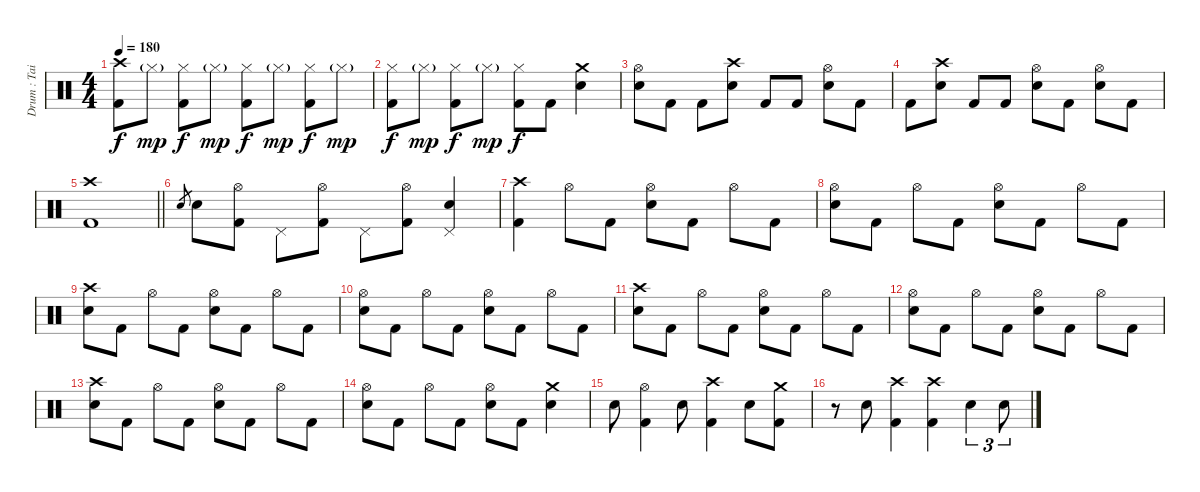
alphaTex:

\track ("Drum : Tainaka Ritsu - Chan" "Drum : Tai") {instrument percussion}
\staff {score}
\articulation defaults
\ts (4 4)
\tempo 180
\clef neutral
\ks c
("Crash high (hit)" "Kick (hit) 2").8{dy f} "Hi-Hat (closed)"{g}.8{dy mp} ("Hi-Hat (closed)" "Kick (hit) 2").8{dy f} "Hi-Hat (closed)"{g}.8{dy mp} ("Hi-Hat (closed)" "Kick (hit) 2").8{dy f} "Hi-Hat (closed)"{g}.8{dy mp} ("Hi-Hat (closed)" "Kick (hit) 2").8{dy f} "Hi-Hat (closed)"{g}.8{dy mp} |
("Hi-Hat (closed)" "Kick (hit) 2").8{dy f} "Hi-Hat (closed)"{g}.8{dy mp} ("Hi-Hat (closed)" "Kick (hit) 2").8{dy f} "Hi-Hat (closed)"{g}.8{dy mp} ("Hi-Hat (closed)" "Kick (hit) 2").8{dy f} "Kick (hit) 2".8 ("Crash medium (hit)" "Electric Snare (hit)").4 |
("Hi-Hat (open)" "Electric Snare (hit)").8 "Kick (hit) 2".8 "Kick (hit) 2".8 ("Crash high (hit)" "Electric Snare (hit)").8 "Kick (hit) 2".8 "Kick (hit) 2".8 ("Hi-Hat (open)" "Electric Snare (hit)").8 "Kick (hit) 2".8 |
"Kick (hit) 2".8 ("Crash high (hit)" "Electric Snare (hit)").8 "Kick (hit) 2".8 "Kick (hit) 2".8 ("Hi-Hat (open)" "Electric Snare (hit)").8 "Kick (hit) 2".8 ("Hi-Hat (open)" "Electric Snare (hit)").8 "Kick (hit) 2".8 |
\barLineRight lightlight
("Crash high (hit)" "Kick (hit) 2").1 |
"Electric Snare (hit)".8{gr} "Electric Snare (hit)".8 ("Hi-Hat (open)" "Kick (hit) 2").8 "Pedal Hi-Hat (hit)".8 ("Hi-Hat (open)" "Kick (hit) 2").8 "Pedal Hi-Hat (hit)".8 ("Hi-Hat (open)" "Kick (hit) 2").8 ("Pedal Hi-Hat (hit)" "Electric Snare (hit)").4 |
("Crash high (hit)" "Kick (hit) 2").4 "Hi-Hat (open)".8 "Kick (hit) 2".8 ("Hi-Hat (open)" "Electric Snare (hit)").8 "Kick (hit) 2".8 "Hi-Hat (open)".8 "Kick (hit) 2".8 |
("Hi-Hat (open)" "Electric Snare (hit)").8 "Kick (hit) 2".8 "Hi-Hat (open)".8 "Kick (hit) 2".8 ("Hi-Hat (open)" "Electric Snare (hit)").8 "Kick (hit) 2".8 "Hi-Hat (open)".8 "Kick (hit) 2".8 |
("Crash high (hit)" "Electric Snare (hit)").8 "Kick (hit) 2".8 "Hi-Hat (open)".8 "Kick (hit) 2".8 ("Hi-Hat (open)" "Electric Snare (hit)").8 "Kick (hit) 2".8 "Hi-Hat (open)".8 "Kick (hit) 2".8 |
("Hi-Hat (open)" "Electric Snare (hit)").8 "Kick (hit) 2".8 "Hi-Hat (open)".8 "Kick (hit) 2".8 ("Hi-Hat (open)" "Electric Snare (hit)").8 "Kick (hit) 2".8 "Hi-Hat (open)".8 "Kick (hit) 2".8 |
("Crash high (hit)" "Electric Snare (hit)").8 "Kick (hit) 2".8 "Hi-Hat (open)".8 "Kick (hit) 2".8 ("Hi-Hat (open)" "Electric Snare (hit)").8 "Kick (hit) 2".8 "Hi-Hat (open)".8 "Kick (hit) 2".8 |
("Hi-Hat (open)" "Electric Snare (hit)").8 "Kick (hit) 2".8 "Hi-Hat (open)".8 "Kick (hit) 2".8 ("Hi-Hat (open)" "Electric Snare (hit)").8 "Kick (hit) 2".8 "Hi-Hat (open)".8 "Kick (hit) 2".8 |
("Crash high (hit)" "Electric Snare (hit)").8 "Kick (hit) 2".8 "Hi-Hat (open)".8 "Kick (hit) 2".8 ("Hi-Hat (open)" "Electric Snare (hit)").8 "Kick (hit) 2".8 "Hi-Hat (open)".8 "Kick (hit) 2".8 |
("Hi-Hat (open)" "Electric Snare (hit)").8 "Kick (hit) 2".8 "Hi-Hat (open)".8 "Kick (hit) 2".8 ("Hi-Hat (open)" "Electric Snare (hit)").8 "Kick (hit) 2".8 ("Crash medium (hit)" "Electric Snare (hit)").4 |
"Electric Snare (hit)".8 ("Hi-Hat (open)" "Kick (hit) 2").4 "Electric Snare (hit)".8 ("Crash high (hit)" "Kick (hit) 2").4 "Electric Snare (hit)".8 ("Crash medium (hit)" "Kick (hit) 2").8 |
r.8 "Electric Snare (hit)".8 ("Crash high (hit)" "Kick (hit) 2").4 ("Crash high (hit)" "Kick (hit) 2").4 "Electric Snare (hit)".4{tu (3 2)} "Electric Snare (hit)".8{tu (3 2)}
